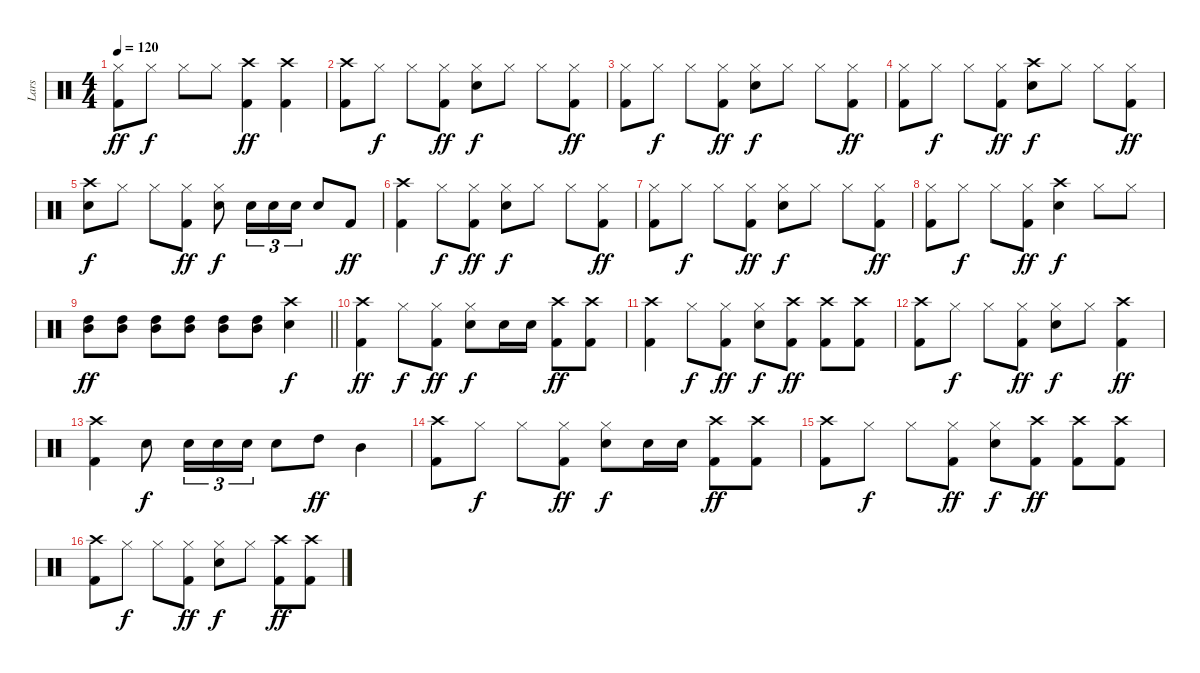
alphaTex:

\track ("Lars" "Lars") {instrument percussion}
\staff {score}
\articulation defaults
\ts (4 4)
\tempo 120
\clef neutral
\ks c
("Hi-Hat (closed)" "Kick (hit) 2").8{dy ff} "Hi-Hat (closed)".8{dy f} "Hi-Hat (closed)".8 "Hi-Hat (closed)".8 ("Crash high (hit)" "Kick (hit) 2").4{dy ff} ("Crash high (hit)" "Kick (hit) 2").4 |
("Crash high (hit)" "Kick (hit) 2").8 "Hi-Hat (closed)".8{dy f} "Hi-Hat (closed)".8 ("Hi-Hat (closed)" "Kick (hit) 2").8{dy ff} ("Hi-Hat (closed)" "Snare (hit) 2").8{dy f} "Hi-Hat (closed)".8 "Hi-Hat (closed)".8 ("Hi-Hat (closed)" "Kick (hit) 2").8{dy ff} |
("Hi-Hat (closed)" "Kick (hit) 2").8 "Hi-Hat (closed)".8{dy f} "Hi-Hat (closed)".8 ("Hi-Hat (closed)" "Kick (hit) 2").8{dy ff} ("Hi-Hat (closed)" "Snare (hit) 2").8{dy f} "Hi-Hat (closed)".8 "Hi-Hat (closed)".8 ("Hi-Hat (closed)" "Kick (hit) 2").8{dy ff} |
("Hi-Hat (closed)" "Kick (hit) 2").8 "Hi-Hat (closed)".8{dy f} "Hi-Hat (closed)".8 ("Hi-Hat (closed)" "Kick (hit) 2").8{dy ff} ("Crash high (hit)" "Snare (hit) 2").8{dy f} "Hi-Hat (closed)".8 "Hi-Hat (closed)".8 ("Hi-Hat (closed)" "Kick (hit) 2").8{dy ff} |
("Crash high (hit)" "Snare (hit) 2").8{dy f} "Hi-Hat (closed)".8 "Hi-Hat (closed)".8 ("Hi-Hat (closed)" "Kick (hit) 2").8{dy ff} ("Hi-Hat (closed)" "Snare (hit) 2").8{dy f} "Snare (hit) 2".16{tu (3 2)} "Snare (hit) 2".16{tu (3 2)} "Snare (hit) 2".16{tu (3 2)} "Snare (hit) 2".8 "Kick (hit) 2".8{dy ff} |
("Crash high (hit)" "Kick (hit) 2").4 "Hi-Hat (closed)".8{dy f} ("Hi-Hat (closed)" "Kick (hit) 2").8{dy ff} ("Hi-Hat (closed)" "Snare (hit) 2").8{dy f} "Hi-Hat (closed)".8 "Hi-Hat (closed)".8 ("Hi-Hat (closed)" "Kick (hit) 2").8{dy ff} |
("Hi-Hat (closed)" "Kick (hit) 2").8 "Hi-Hat (closed)".8{dy f} "Hi-Hat (closed)".8 ("Hi-Hat (closed)" "Kick (hit) 2").8{dy ff} ("Hi-Hat (closed)" "Snare (hit) 2").8{dy f} "Hi-Hat (closed)".8 "Hi-Hat (closed)".8 ("Hi-Hat (closed)" "Kick (hit) 2").8{dy ff} |
("Hi-Hat (closed)" "Kick (hit) 2").8 "Hi-Hat (closed)".8{dy f} "Hi-Hat (closed)".8 ("Hi-Hat (closed)" "Kick (hit) 2").8{dy ff} ("Crash high (hit)" "Snare (hit) 2").4{dy f} "Hi-Hat (closed)".8 "Hi-Hat (closed)".8 |
\barLineRight lightlight
("Mid Tom (hit)" "High Tom (hit)").8{dy ff} ("Mid Tom (hit)" "High Tom (hit)").8 ("Mid Tom (hit)" "High Tom (hit)").8 ("Mid Tom (hit)" "High Tom (hit)").8 ("Mid Tom (hit)" "High Tom (hit)").8 ("Mid Tom (hit)" "High Tom (hit)").8 ("Crash high (hit)" "Snare (hit) 2").4{dy f} |
("Crash high (hit)" "Kick (hit) 2").4{dy ff} "Hi-Hat (closed)".8{dy f} ("Hi-Hat (closed)" "Kick (hit) 2").8{dy ff} ("Hi-Hat (closed)" "Snare (hit) 2").8{dy f} "Snare (hit) 2".16 "Snare (hit) 2".16 ("Crash high (hit)" "Kick (hit) 2").8{dy ff} ("Crash high (hit)" "Kick (hit) 2").8 |
("Crash high (hit)" "Kick (hit) 2").4 "Hi-Hat (closed)".8{dy f} ("Hi-Hat (closed)" "Kick (hit) 2").8{dy ff} ("Hi-Hat (closed)" "Snare (hit) 2").8{dy f} ("Crash high (hit)" "Kick (hit) 2").8{dy ff} ("Crash high (hit)" "Kick (hit) 2").8 ("Crash high (hit)" "Kick (hit) 2").8 |
("Crash high (hit)" "Kick (hit) 2").8 "Hi-Hat (closed)".8{dy f} "Hi-Hat (closed)".8 ("Hi-Hat (closed)" "Kick (hit) 2").8{dy ff} ("Hi-Hat (closed)" "Snare (hit) 2").8{dy f} "Hi-Hat (closed)".8 ("Crash high (hit)" "Kick (hit) 2").4{dy ff} |
("Crash high (hit)" "Kick (hit) 2").4 "Snare (hit) 2".8{dy f} "Snare (hit) 2".16{tu (3 2)} "Snare (hit) 2".16{tu (3 2)} "Snare (hit) 2".16{tu (3 2)} "Snare (hit) 2".8 "High Tom (hit)".8{dy ff} "Mid Tom (hit)".4 |
("Crash high (hit)" "Kick (hit) 2").8 "Hi-Hat (closed)".8{dy f} "Hi-Hat (closed)".8 ("Hi-Hat (closed)" "Kick (hit) 2").8{dy ff} ("Hi-Hat (closed)" "Snare (hit) 2").8{dy f} "Snare (hit) 2".16 "Snare (hit) 2".16 ("Crash high (hit)" "Kick (hit) 2").8{dy ff} ("Crash high (hit)" "Kick (hit) 2").8 |
("Crash high (hit)" "Kick (hit) 2").8 "Hi-Hat (closed)".8{dy f} "Hi-Hat (closed)".8 ("Hi-Hat (closed)" "Kick (hit) 2").8{dy ff} ("Hi-Hat (closed)" "Snare (hit) 2").8{dy f} ("Crash high (hit)" "Kick (hit) 2").8{dy ff} ("Crash high (hit)" "Kick (hit) 2").8 ("Crash high (hit)" "Kick (hit) 2").8 |
("Crash high (hit)" "Kick (hit) 2").8 "Hi-Hat (closed)".8{dy f} "Hi-Hat (closed)".8 ("Hi-Hat (closed)" "Kick (hit) 2").8{dy ff} ("Hi-Hat (closed)" "Snare (hit) 2").8{dy f} "Hi-Hat (closed)".8 ("Crash high (hit)" "Kick (hit) 2").8{dy ff} ("Crash high (hit)" "Kick (hit) 2").8
